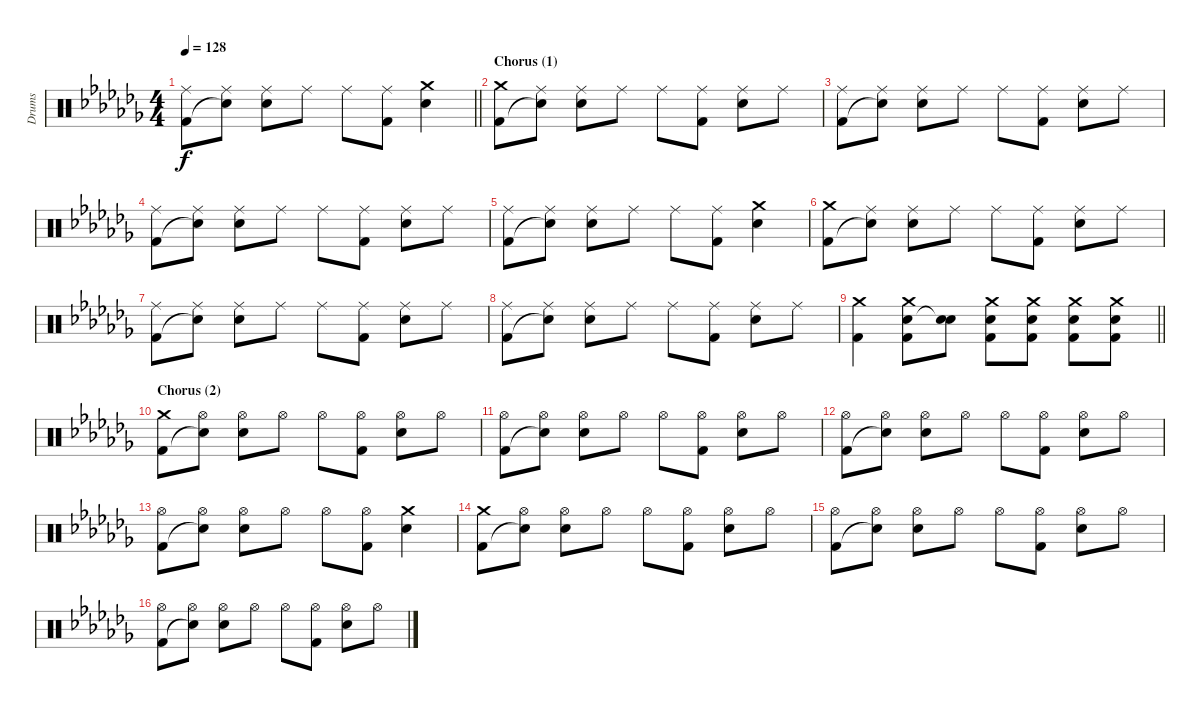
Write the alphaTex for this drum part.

\track ("Drums" "Drums") {instrument percussion}
\staff {score}
\articulation defaults
\ts (4 4)
\tempo 128
\clef neutral
\barLineRight lightlight
\ks abminor
("Ride (middle)" "Kick (hit) 2").8{dy f} ("Ride (middle)" "Snare (hit)"{t}).8 ("Ride (middle)" "Electric Snare (hit)").8 "Ride (middle)".8 "Ride (middle)".8 ("Ride (middle)" "Kick (hit) 2").8 ("Crash medium (hit)" "Electric Snare (hit)").4 |
\section ("" "Chorus (1)")
("Crash medium (hit)" "Kick (hit) 2").8 ("Ride (middle)" "Snare (hit)"{t}).8 ("Ride (middle)" "Electric Snare (hit)").8 "Ride (middle)".8 "Ride (middle)".8 ("Ride (middle)" "Kick (hit) 2").8 ("Ride (middle)" "Electric Snare (hit)").8 "Ride (middle)".8 |
("Ride (middle)" "Kick (hit) 2").8 ("Ride (middle)" "Snare (hit)"{t}).8 ("Ride (middle)" "Electric Snare (hit)").8 "Ride (middle)".8 "Ride (middle)".8 ("Ride (middle)" "Kick (hit) 2").8 ("Ride (middle)" "Electric Snare (hit)").8 "Ride (middle)".8 |
("Ride (middle)" "Kick (hit) 2").8 ("Ride (middle)" "Snare (hit)"{t}).8 ("Ride (middle)" "Electric Snare (hit)").8 "Ride (middle)".8 "Ride (middle)".8 ("Ride (middle)" "Kick (hit) 2").8 ("Ride (middle)" "Electric Snare (hit)").8 "Ride (middle)".8 |
("Ride (middle)" "Kick (hit) 2").8 ("Ride (middle)" "Snare (hit)"{t}).8 ("Ride (middle)" "Electric Snare (hit)").8 "Ride (middle)".8 "Ride (middle)".8 ("Ride (middle)" "Kick (hit) 2").8 ("Crash medium (hit)" "Electric Snare (hit)").4 |
("Crash medium (hit)" "Kick (hit) 2").8 ("Ride (middle)" "Snare (hit)"{t}).8 ("Ride (middle)" "Electric Snare (hit)").8 "Ride (middle)".8 "Ride (middle)".8 ("Ride (middle)" "Kick (hit) 2").8 ("Ride (middle)" "Electric Snare (hit)").8 "Ride (middle)".8 |
("Ride (middle)" "Kick (hit) 2").8 ("Ride (middle)" "Snare (hit)"{t}).8 ("Ride (middle)" "Electric Snare (hit)").8 "Ride (middle)".8 "Ride (middle)".8 ("Ride (middle)" "Kick (hit) 2").8 ("Ride (middle)" "Electric Snare (hit)").8 "Ride (middle)".8 |
("Ride (middle)" "Kick (hit) 2").8 ("Ride (middle)" "Snare (hit)"{t}).8 ("Ride (middle)" "Electric Snare (hit)").8 "Ride (middle)".8 "Ride (middle)".8 ("Ride (middle)" "Kick (hit) 2").8 ("Ride (middle)" "Electric Snare (hit)").8 "Ride (middle)".8 |
\barLineRight lightlight
("Crash medium (hit)" "Kick (hit) 2").4 ("Crash medium (hit)" "Electric Snare (hit)" "Kick (hit) 2").8 ("Electric Snare (hit)" "Snare (hit)"{t}).8 ("Crash medium (hit)" "Electric Snare (hit)" "Kick (hit) 2").8 ("Crash medium (hit)" "Electric Snare (hit)" "Kick (hit) 2").8 ("Crash medium (hit)" "Electric Snare (hit)" "Kick (hit) 2").8 ("Crash medium (hit)" "Electric Snare (hit)" "Kick (hit) 2").8 |
\section ("" "Chorus (2)")
("Crash medium (hit)" "Kick (hit) 2").8 ("Hi-Hat (open)" "Snare (hit)"{t}).8 ("Hi-Hat (open)" "Electric Snare (hit)").8 "Hi-Hat (open)".8 "Hi-Hat (open)".8 ("Hi-Hat (open)" "Kick (hit) 2").8 ("Hi-Hat (open)" "Electric Snare (hit)").8 "Hi-Hat (open)".8 |
("Hi-Hat (open)" "Kick (hit) 2").8 ("Hi-Hat (open)" "Snare (hit)"{t}).8 ("Hi-Hat (open)" "Electric Snare (hit)").8 "Hi-Hat (open)".8 "Hi-Hat (open)".8 ("Hi-Hat (open)" "Kick (hit) 2").8 ("Hi-Hat (open)" "Electric Snare (hit)").8 "Hi-Hat (open)".8 |
("Hi-Hat (open)" "Kick (hit) 2").8 ("Hi-Hat (open)" "Snare (hit)"{t}).8 ("Hi-Hat (open)" "Electric Snare (hit)").8 "Hi-Hat (open)".8 "Hi-Hat (open)".8 ("Hi-Hat (open)" "Kick (hit) 2").8 ("Hi-Hat (open)" "Electric Snare (hit)").8 "Hi-Hat (open)".8 |
("Hi-Hat (open)" "Kick (hit) 2").8 ("Hi-Hat (open)" "Snare (hit)"{t}).8 ("Hi-Hat (open)" "Electric Snare (hit)").8 "Hi-Hat (open)".8 "Hi-Hat (open)".8 ("Hi-Hat (open)" "Kick (hit) 2").8 ("Crash medium (hit)" "Electric Snare (hit)").4 |
("Crash medium (hit)" "Kick (hit) 2").8 ("Hi-Hat (open)" "Snare (hit)"{t}).8 ("Hi-Hat (open)" "Electric Snare (hit)").8 "Hi-Hat (open)".8 "Hi-Hat (open)".8 ("Hi-Hat (open)" "Kick (hit) 2").8 ("Hi-Hat (open)" "Electric Snare (hit)").8 "Hi-Hat (open)".8 |
("Hi-Hat (open)" "Kick (hit) 2").8 ("Hi-Hat (open)" "Snare (hit)"{t}).8 ("Hi-Hat (open)" "Electric Snare (hit)").8 "Hi-Hat (open)".8 "Hi-Hat (open)".8 ("Hi-Hat (open)" "Kick (hit) 2").8 ("Hi-Hat (open)" "Electric Snare (hit)").8 "Hi-Hat (open)".8 |
("Hi-Hat (open)" "Kick (hit) 2").8 ("Hi-Hat (open)" "Snare (hit)"{t}).8 ("Hi-Hat (open)" "Electric Snare (hit)").8 "Hi-Hat (open)".8 "Hi-Hat (open)".8 ("Hi-Hat (open)" "Kick (hit) 2").8 ("Hi-Hat (open)" "Electric Snare (hit)").8 "Hi-Hat (open)".8
